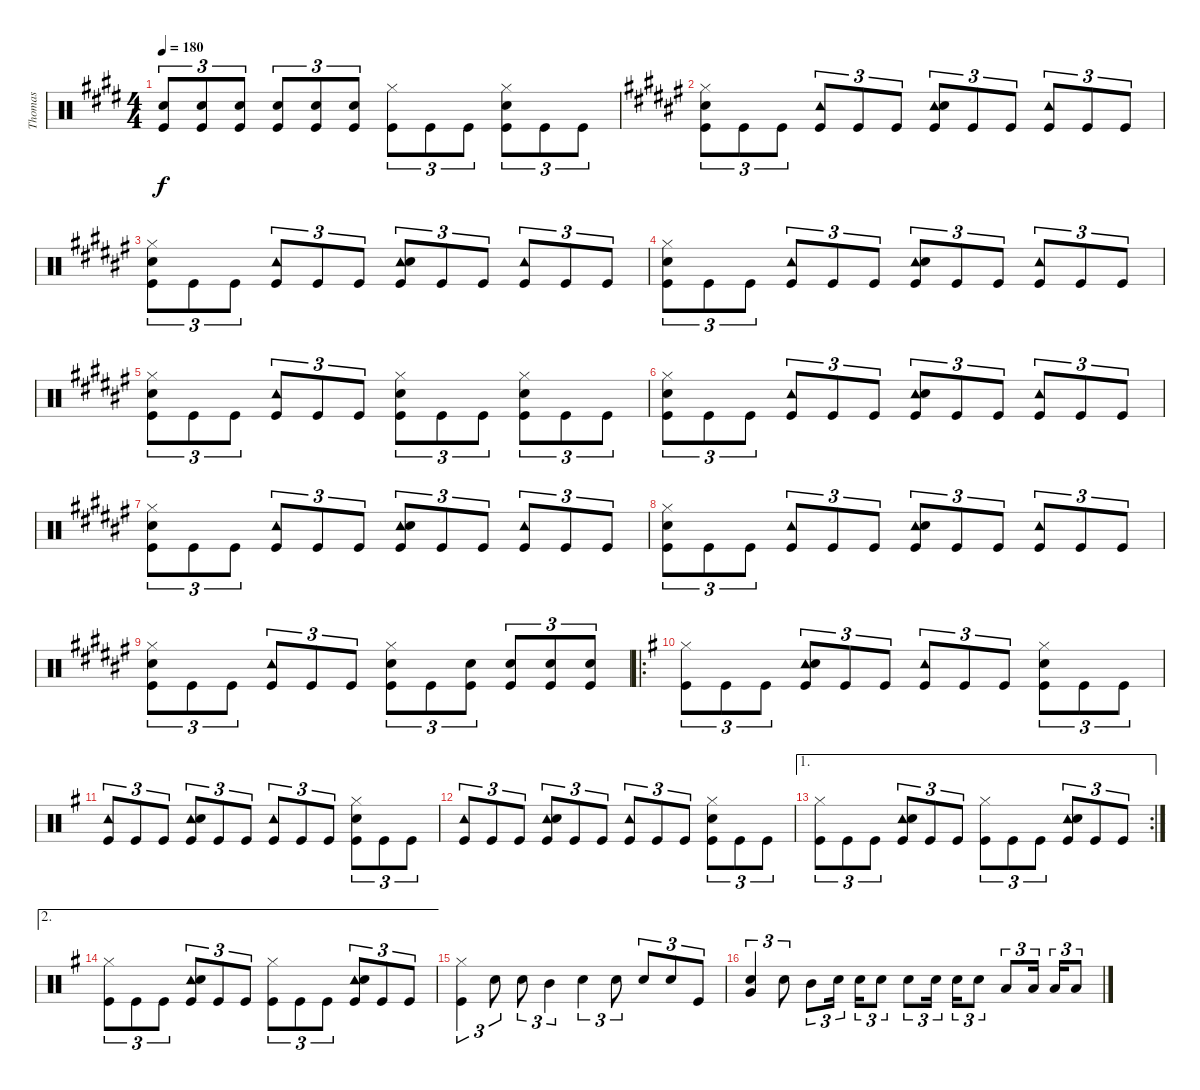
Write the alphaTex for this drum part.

\track ("Thomas" "Thomas") {instrument percussion}
\staff {score}
\articulation defaults
\ts (4 4)
\tempo 180
\clef neutral
\ks e
("Snare (hit) 2" "Kick (hit)").8{tu (3 2) dy f} ("Snare (hit) 2" "Kick (hit)").8{tu (3 2)} ("Snare (hit) 2" "Kick (hit)").8{tu (3 2)} ("Snare (hit) 2" "Kick (hit)").8{tu (3 2)} ("Snare (hit) 2" "Kick (hit)").8{tu (3 2)} ("Snare (hit) 2" "Kick (hit)").8{tu (3 2)} ("Hi-Hat (closed)" "Kick (hit)").8{tu (3 2)} "Kick (hit)".8{tu (3 2)} "Kick (hit)".8{tu (3 2)} ("Hi-Hat (closed)" "Snare (hit) 2" "Kick (hit)").8{tu (3 2)} "Kick (hit)".8{tu (3 2)} "Kick (hit)".8{tu (3 2)} |
\ks f#
("Hi-Hat (closed)" "Snare (hit) 2" "Kick (hit)").8{tu (3 2)} "Kick (hit)".8{tu (3 2)} "Kick (hit)".8{tu (3 2)} ("Tambourine (hit)" "Kick (hit)").8{tu (3 2)} "Kick (hit)".8{tu (3 2)} "Kick (hit)".8{tu (3 2)} ("Tambourine (hit)" "Snare (hit) 2" "Kick (hit)").8{tu (3 2)} "Kick (hit)".8{tu (3 2)} "Kick (hit)".8{tu (3 2)} ("Tambourine (hit)" "Kick (hit)").8{tu (3 2)} "Kick (hit)".8{tu (3 2)} "Kick (hit)".8{tu (3 2)} |
("Hi-Hat (closed)" "Snare (hit) 2" "Kick (hit)").8{tu (3 2)} "Kick (hit)".8{tu (3 2)} "Kick (hit)".8{tu (3 2)} ("Tambourine (hit)" "Kick (hit)").8{tu (3 2)} "Kick (hit)".8{tu (3 2)} "Kick (hit)".8{tu (3 2)} ("Tambourine (hit)" "Snare (hit) 2" "Kick (hit)").8{tu (3 2)} "Kick (hit)".8{tu (3 2)} "Kick (hit)".8{tu (3 2)} ("Tambourine (hit)" "Kick (hit)").8{tu (3 2)} "Kick (hit)".8{tu (3 2)} "Kick (hit)".8{tu (3 2)} |
("Hi-Hat (closed)" "Snare (hit) 2" "Kick (hit)").8{tu (3 2)} "Kick (hit)".8{tu (3 2)} "Kick (hit)".8{tu (3 2)} ("Tambourine (hit)" "Kick (hit)").8{tu (3 2)} "Kick (hit)".8{tu (3 2)} "Kick (hit)".8{tu (3 2)} ("Tambourine (hit)" "Snare (hit) 2" "Kick (hit)").8{tu (3 2)} "Kick (hit)".8{tu (3 2)} "Kick (hit)".8{tu (3 2)} ("Tambourine (hit)" "Kick (hit)").8{tu (3 2)} "Kick (hit)".8{tu (3 2)} "Kick (hit)".8{tu (3 2)} |
("Hi-Hat (closed)" "Snare (hit) 2" "Kick (hit)").8{tu (3 2)} "Kick (hit)".8{tu (3 2)} "Kick (hit)".8{tu (3 2)} ("Tambourine (hit)" "Kick (hit)").8{tu (3 2)} "Kick (hit)".8{tu (3 2)} "Kick (hit)".8{tu (3 2)} ("Hi-Hat (closed)" "Snare (hit) 2" "Kick (hit)").8{tu (3 2)} "Kick (hit)".8{tu (3 2)} "Kick (hit)".8{tu (3 2)} ("Hi-Hat (closed)" "Snare (hit) 2" "Kick (hit)").8{tu (3 2)} "Kick (hit)".8{tu (3 2)} "Kick (hit)".8{tu (3 2)} |
("Hi-Hat (closed)" "Snare (hit) 2" "Kick (hit)").8{tu (3 2)} "Kick (hit)".8{tu (3 2)} "Kick (hit)".8{tu (3 2)} ("Tambourine (hit)" "Kick (hit)").8{tu (3 2)} "Kick (hit)".8{tu (3 2)} "Kick (hit)".8{tu (3 2)} ("Tambourine (hit)" "Snare (hit) 2" "Kick (hit)").8{tu (3 2)} "Kick (hit)".8{tu (3 2)} "Kick (hit)".8{tu (3 2)} ("Tambourine (hit)" "Kick (hit)").8{tu (3 2)} "Kick (hit)".8{tu (3 2)} "Kick (hit)".8{tu (3 2)} |
("Hi-Hat (closed)" "Snare (hit) 2" "Kick (hit)").8{tu (3 2)} "Kick (hit)".8{tu (3 2)} "Kick (hit)".8{tu (3 2)} ("Tambourine (hit)" "Kick (hit)").8{tu (3 2)} "Kick (hit)".8{tu (3 2)} "Kick (hit)".8{tu (3 2)} ("Tambourine (hit)" "Snare (hit) 2" "Kick (hit)").8{tu (3 2)} "Kick (hit)".8{tu (3 2)} "Kick (hit)".8{tu (3 2)} ("Tambourine (hit)" "Kick (hit)").8{tu (3 2)} "Kick (hit)".8{tu (3 2)} "Kick (hit)".8{tu (3 2)} |
("Hi-Hat (closed)" "Snare (hit) 2" "Kick (hit)").8{tu (3 2)} "Kick (hit)".8{tu (3 2)} "Kick (hit)".8{tu (3 2)} ("Tambourine (hit)" "Kick (hit)").8{tu (3 2)} "Kick (hit)".8{tu (3 2)} "Kick (hit)".8{tu (3 2)} ("Tambourine (hit)" "Snare (hit) 2" "Kick (hit)").8{tu (3 2)} "Kick (hit)".8{tu (3 2)} "Kick (hit)".8{tu (3 2)} ("Tambourine (hit)" "Kick (hit)").8{tu (3 2)} "Kick (hit)".8{tu (3 2)} "Kick (hit)".8{tu (3 2)} |
("Hi-Hat (closed)" "Snare (hit) 2" "Kick (hit)").8{tu (3 2)} "Kick (hit)".8{tu (3 2)} "Kick (hit)".8{tu (3 2)} ("Tambourine (hit)" "Kick (hit)").8{tu (3 2)} "Kick (hit)".8{tu (3 2)} "Kick (hit)".8{tu (3 2)} ("Hi-Hat (closed)" "Snare (hit) 2" "Kick (hit)").8{tu (3 2)} "Kick (hit)".8{tu (3 2)} ("Snare (hit) 2" "Kick (hit)").8{tu (3 2)} ("Snare (hit) 2" "Kick (hit)").8{tu (3 2)} ("Snare (hit) 2" "Kick (hit)").8{tu (3 2)} ("Snare (hit) 2" "Kick (hit)").8{tu (3 2)} |
\ro
\ks g
("Hi-Hat (closed)" "Kick (hit)").8{tu (3 2)} "Kick (hit)".8{tu (3 2)} "Kick (hit)".8{tu (3 2)} ("Tambourine (hit)" "Snare (hit) 2" "Kick (hit)").8{tu (3 2)} "Kick (hit)".8{tu (3 2)} "Kick (hit)".8{tu (3 2)} ("Tambourine (hit)" "Kick (hit)").8{tu (3 2)} "Kick (hit)".8{tu (3 2)} "Kick (hit)".8{tu (3 2)} ("Hi-Hat (closed)" "Snare (hit) 2" "Kick (hit)").8{tu (3 2)} "Kick (hit)".8{tu (3 2)} "Kick (hit)".8{tu (3 2)} |
("Tambourine (hit)" "Kick (hit)").8{tu (3 2)} "Kick (hit)".8{tu (3 2)} "Kick (hit)".8{tu (3 2)} ("Tambourine (hit)" "Snare (hit) 2" "Kick (hit)").8{tu (3 2)} "Kick (hit)".8{tu (3 2)} "Kick (hit)".8{tu (3 2)} ("Tambourine (hit)" "Kick (hit)").8{tu (3 2)} "Kick (hit)".8{tu (3 2)} "Kick (hit)".8{tu (3 2)} ("Hi-Hat (closed)" "Snare (hit) 2" "Kick (hit)").8{tu (3 2)} "Kick (hit)".8{tu (3 2)} "Kick (hit)".8{tu (3 2)} |
("Tambourine (hit)" "Kick (hit)").8{tu (3 2)} "Kick (hit)".8{tu (3 2)} "Kick (hit)".8{tu (3 2)} ("Tambourine (hit)" "Snare (hit) 2" "Kick (hit)").8{tu (3 2)} "Kick (hit)".8{tu (3 2)} "Kick (hit)".8{tu (3 2)} ("Tambourine (hit)" "Kick (hit)").8{tu (3 2)} "Kick (hit)".8{tu (3 2)} "Kick (hit)".8{tu (3 2)} ("Hi-Hat (closed)" "Snare (hit) 2" "Kick (hit)").8{tu (3 2)} "Kick (hit)".8{tu (3 2)} "Kick (hit)".8{tu (3 2)} |
\ae 1
\rc 2
("Hi-Hat (closed)" "Kick (hit)").8{tu (3 2)} "Kick (hit)".8{tu (3 2)} "Kick (hit)".8{tu (3 2)} ("Tambourine (hit)" "Snare (hit) 2" "Kick (hit)").8{tu (3 2)} "Kick (hit)".8{tu (3 2)} "Kick (hit)".8{tu (3 2)} ("Hi-Hat (closed)" "Kick (hit)").8{tu (3 2)} "Kick (hit)".8{tu (3 2)} "Kick (hit)".8{tu (3 2)} ("Tambourine (hit)" "Snare (hit) 2" "Kick (hit)").8{tu (3 2)} "Kick (hit)".8{tu (3 2)} "Kick (hit)".8{tu (3 2)} |
\ae 2
("Hi-Hat (closed)" "Kick (hit)").8{tu (3 2)} "Kick (hit)".8{tu (3 2)} "Kick (hit)".8{tu (3 2)} ("Tambourine (hit)" "Snare (hit) 2" "Kick (hit)").8{tu (3 2)} "Kick (hit)".8{tu (3 2)} "Kick (hit)".8{tu (3 2)} ("Hi-Hat (closed)" "Kick (hit)").8{tu (3 2)} "Kick (hit)".8{tu (3 2)} "Kick (hit)".8{tu (3 2)} ("Tambourine (hit)" "Snare (hit) 2" "Kick (hit)").8{tu (3 2)} "Kick (hit)".8{tu (3 2)} "Kick (hit)".8{tu (3 2)} |
("Hi-Hat (closed)" "Kick (hit)").4{tu (3 2)} "Snare (hit) 2".8{tu (3 2)} "Snare (hit) 2".8{tu (3 2)} "Mid Tom (hit)".4{tu (3 2)} "Snare (hit) 2".4{tu (3 2)} "Snare (hit) 2".8{tu (3 2)} "Snare (hit) 2".8{tu (3 2)} "Snare (hit) 2".8{tu (3 2)} "Kick (hit)".8{tu (3 2)} |
("Snare (hit) 2" "Very Low Tom (hit)").4{tu (3 2)} "Snare (hit) 2".8{tu (3 2)} "Mid Tom (hit)".8{tu (3 2)} "Snare (hit) 2".16{tu (3 2) beam splitsecondary} "Snare (hit) 2".16{tu (3 2)} "Snare (hit) 2".8{tu (3 2)} "Snare (hit) 2".8{tu (3 2)} "Snare (hit) 2".16{tu (3 2) beam splitsecondary} "Snare (hit) 2".16{tu (3 2)} "Snare (hit) 2".8{tu (3 2)} "Low Tom (hit)".8{tu (3 2)} "Low Tom (hit)".16{tu (3 2) beam splitsecondary} "Low Tom (hit)".16{tu (3 2)} "Low Tom (hit)".8{tu (3 2)}
